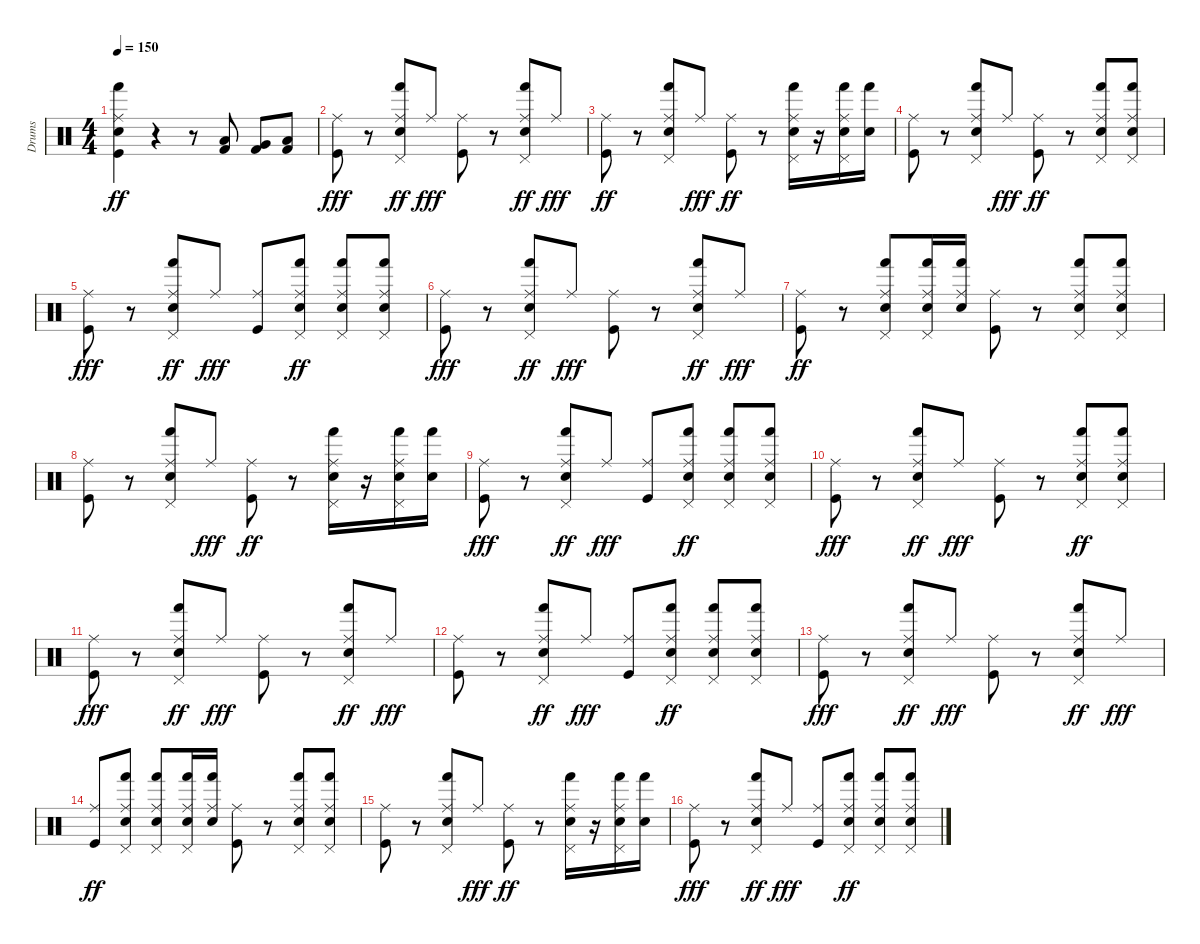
\track ("Drums" "Drums") {instrument percussion}
\staff {score}
\articulation defaults
\ts (4 4)
\tempo 150
\clef neutral
\ks c
("Ride (middle)" "Hand (hit)" "Electric Snare (hit)" "Kick (hit)").4{dy ff} r.4 r.8 ("Low Floor Tom (hit)" "Kick (hit) 2").8 ("Very Low Tom (hit)" "Kick (hit) 2").8 ("Low Tom (hit)" "Kick (hit) 2").8 |
("Ride (middle)" "Kick (hit)").8{dy fff} r.8 ("Ride (middle)" "Pedal Hi-Hat (hit)" "Hand (hit)" "Electric Snare (hit)").8{dy ff} "Ride (middle)".8{dy fff} ("Ride (middle)" "Kick (hit)").8 r.8 ("Ride (middle)" "Pedal Hi-Hat (hit)" "Hand (hit)" "Electric Snare (hit)").8{dy ff} "Ride (middle)".8{dy fff} |
("Ride (middle)" "Kick (hit)").8{dy ff} r.8 ("Ride (middle)" "Pedal Hi-Hat (hit)" "Hand (hit)" "Electric Snare (hit)").8 "Ride (middle)".8{dy fff} ("Ride (middle)" "Kick (hit)").8{dy ff} r.8 ("Ride (middle)" "Pedal Hi-Hat (hit)" "Hand (hit)" "Electric Snare (hit)").16 r.16 ("Ride (middle)" "Pedal Hi-Hat (hit)" "Hand (hit)" "Electric Snare (hit)").16 ("Hand (hit)" "Electric Snare (hit)").16 |
("Ride (middle)" "Kick (hit)").8 r.8 ("Ride (middle)" "Pedal Hi-Hat (hit)" "Hand (hit)" "Electric Snare (hit)").8 "Ride (middle)".8{dy fff} ("Ride (middle)" "Kick (hit)").8{dy ff} r.8 ("Ride (middle)" "Pedal Hi-Hat (hit)" "Hand (hit)" "Electric Snare (hit)").8 ("Ride (middle)" "Pedal Hi-Hat (hit)" "Hand (hit)" "Electric Snare (hit)").8 |
("Ride (middle)" "Kick (hit)").8{dy fff} r.8 ("Ride (middle)" "Pedal Hi-Hat (hit)" "Hand (hit)" "Electric Snare (hit)").8{dy ff} "Ride (middle)".8{dy fff} ("Ride (middle)" "Kick (hit)").8 ("Ride (middle)" "Pedal Hi-Hat (hit)" "Hand (hit)" "Electric Snare (hit)").8{dy ff} ("Ride (middle)" "Pedal Hi-Hat (hit)" "Hand (hit)" "Electric Snare (hit)").8 ("Ride (middle)" "Pedal Hi-Hat (hit)" "Hand (hit)" "Electric Snare (hit)").8 |
("Ride (middle)" "Kick (hit)").8{dy fff} r.8 ("Ride (middle)" "Pedal Hi-Hat (hit)" "Hand (hit)" "Electric Snare (hit)").8{dy ff} "Ride (middle)".8{dy fff} ("Ride (middle)" "Kick (hit)").8 r.8 ("Ride (middle)" "Pedal Hi-Hat (hit)" "Hand (hit)" "Electric Snare (hit)").8{dy ff} "Ride (middle)".8{dy fff} |
("Ride (middle)" "Kick (hit)").8{dy ff} r.8 ("Ride (middle)" "Pedal Hi-Hat (hit)" "Hand (hit)" "Electric Snare (hit)").8 ("Ride (middle)" "Pedal Hi-Hat (hit)" "Hand (hit)" "Electric Snare (hit)").16 ("Ride (middle)" "Hand (hit)" "Electric Snare (hit)").16 ("Ride (middle)" "Kick (hit)").8 r.8 ("Ride (middle)" "Pedal Hi-Hat (hit)" "Hand (hit)" "Electric Snare (hit)").8 ("Ride (middle)" "Pedal Hi-Hat (hit)" "Hand (hit)" "Electric Snare (hit)").8 |
("Ride (middle)" "Kick (hit)").8 r.8 ("Ride (middle)" "Pedal Hi-Hat (hit)" "Hand (hit)" "Electric Snare (hit)").8 "Ride (middle)".8{dy fff} ("Ride (middle)" "Kick (hit)").8{dy ff} r.8 ("Ride (middle)" "Pedal Hi-Hat (hit)" "Hand (hit)" "Electric Snare (hit)").16 r.16 ("Ride (middle)" "Pedal Hi-Hat (hit)" "Hand (hit)" "Electric Snare (hit)").16 ("Hand (hit)" "Electric Snare (hit)").16 |
("Ride (middle)" "Kick (hit)").8{dy fff} r.8 ("Ride (middle)" "Pedal Hi-Hat (hit)" "Hand (hit)" "Electric Snare (hit)").8{dy ff} "Ride (middle)".8{dy fff} ("Ride (middle)" "Kick (hit)").8 ("Ride (middle)" "Pedal Hi-Hat (hit)" "Hand (hit)" "Electric Snare (hit)").8{dy ff} ("Ride (middle)" "Pedal Hi-Hat (hit)" "Hand (hit)" "Electric Snare (hit)").8 ("Ride (middle)" "Pedal Hi-Hat (hit)" "Hand (hit)" "Electric Snare (hit)").8 |
("Ride (middle)" "Kick (hit)").8{dy fff} r.8 ("Ride (middle)" "Pedal Hi-Hat (hit)" "Hand (hit)" "Electric Snare (hit)").8{dy ff} "Ride (middle)".8{dy fff} ("Ride (middle)" "Kick (hit)").8 r.8 ("Ride (middle)" "Pedal Hi-Hat (hit)" "Hand (hit)" "Electric Snare (hit)").8{dy ff} ("Ride (middle)" "Pedal Hi-Hat (hit)" "Hand (hit)" "Electric Snare (hit)").8 |
("Ride (middle)" "Kick (hit)").8{dy fff} r.8 ("Ride (middle)" "Pedal Hi-Hat (hit)" "Hand (hit)" "Electric Snare (hit)").8{dy ff} "Ride (middle)".8{dy fff} ("Ride (middle)" "Kick (hit)").8 r.8 ("Ride (middle)" "Pedal Hi-Hat (hit)" "Hand (hit)" "Electric Snare (hit)").8{dy ff} "Ride (middle)".8{dy fff} |
("Ride (middle)" "Kick (hit)").8 r.8 ("Ride (middle)" "Pedal Hi-Hat (hit)" "Hand (hit)" "Electric Snare (hit)").8{dy ff} "Ride (middle)".8{dy fff} ("Ride (middle)" "Kick (hit)").8 ("Ride (middle)" "Pedal Hi-Hat (hit)" "Hand (hit)" "Electric Snare (hit)").8{dy ff} ("Ride (middle)" "Pedal Hi-Hat (hit)" "Hand (hit)" "Electric Snare (hit)").8 ("Ride (middle)" "Pedal Hi-Hat (hit)" "Hand (hit)" "Electric Snare (hit)").8 |
("Ride (middle)" "Kick (hit)").8{dy fff} r.8 ("Ride (middle)" "Pedal Hi-Hat (hit)" "Hand (hit)" "Electric Snare (hit)").8{dy ff} "Ride (middle)".8{dy fff} ("Ride (middle)" "Kick (hit)").8 r.8 ("Ride (middle)" "Pedal Hi-Hat (hit)" "Hand (hit)" "Electric Snare (hit)").8{dy ff} "Ride (middle)".8{dy fff} |
("Ride (middle)" "Kick (hit)").8{dy ff} ("Ride (middle)" "Pedal Hi-Hat (hit)" "Hand (hit)" "Electric Snare (hit)").8 ("Ride (middle)" "Pedal Hi-Hat (hit)" "Hand (hit)" "Electric Snare (hit)").8 ("Ride (middle)" "Pedal Hi-Hat (hit)" "Hand (hit)" "Electric Snare (hit)").16 ("Ride (middle)" "Hand (hit)" "Electric Snare (hit)").16 ("Ride (middle)" "Kick (hit)").8 r.8 ("Ride (middle)" "Pedal Hi-Hat (hit)" "Hand (hit)" "Electric Snare (hit)").8 ("Ride (middle)" "Pedal Hi-Hat (hit)" "Hand (hit)" "Electric Snare (hit)").8 |
("Ride (middle)" "Kick (hit)").8 r.8 ("Ride (middle)" "Pedal Hi-Hat (hit)" "Hand (hit)" "Electric Snare (hit)").8 "Ride (middle)".8{dy fff} ("Ride (middle)" "Kick (hit)").8{dy ff} r.8 ("Ride (middle)" "Pedal Hi-Hat (hit)" "Hand (hit)" "Electric Snare (hit)").16 r.16 ("Ride (middle)" "Pedal Hi-Hat (hit)" "Hand (hit)" "Electric Snare (hit)").16 ("Hand (hit)" "Electric Snare (hit)").16 |
("Ride (middle)" "Kick (hit)").8{dy fff} r.8 ("Ride (middle)" "Pedal Hi-Hat (hit)" "Hand (hit)" "Electric Snare (hit)").8{dy ff} "Ride (middle)".8{dy fff} ("Ride (middle)" "Kick (hit)").8 ("Ride (middle)" "Pedal Hi-Hat (hit)" "Hand (hit)" "Electric Snare (hit)").8{dy ff} ("Ride (middle)" "Pedal Hi-Hat (hit)" "Hand (hit)" "Electric Snare (hit)").8 ("Ride (middle)" "Pedal Hi-Hat (hit)" "Hand (hit)" "Electric Snare (hit)").8
